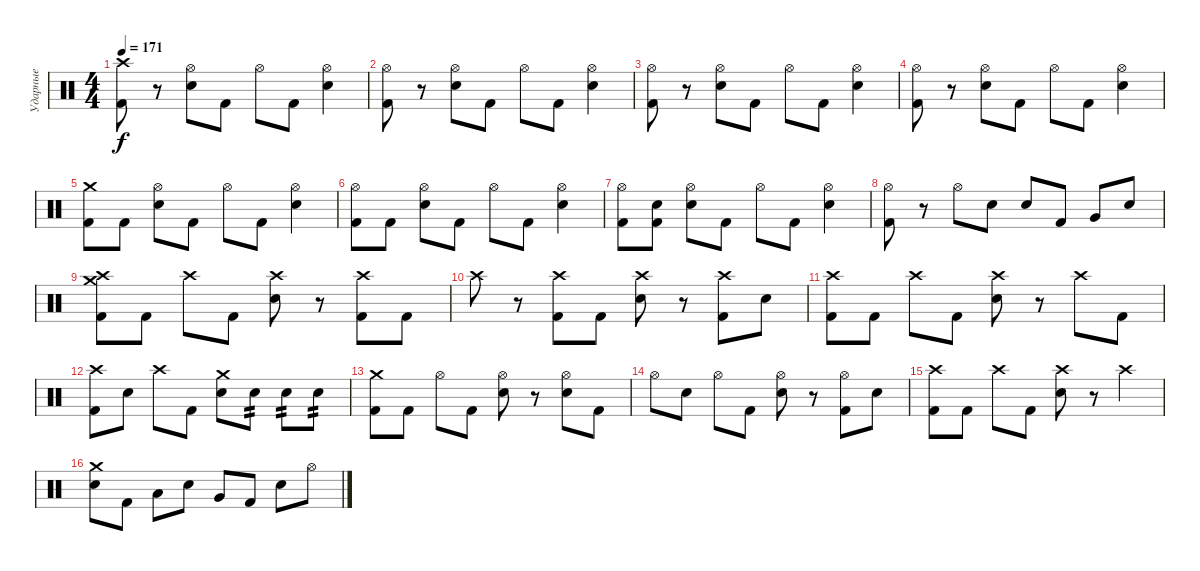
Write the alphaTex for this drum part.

\track ("Ударные" "Ударные") {instrument percussion}
\staff {score}
\articulation defaults
\ts (4 4)
\tempo 171
\clef neutral
\ks c
("Crash high (hit)" "Kick (hit) 2").8{dy f} r.8 ("Hi-Hat (open)" "Electric Snare (hit)").8 "Kick (hit) 2".8 "Hi-Hat (open)".8 "Kick (hit) 2".8 ("Hi-Hat (open)" "Electric Snare (hit)").4 |
("Hi-Hat (open)" "Kick (hit) 2").8 r.8 ("Hi-Hat (open)" "Electric Snare (hit)").8 "Kick (hit) 2".8 "Hi-Hat (open)".8 "Kick (hit) 2".8 ("Hi-Hat (open)" "Electric Snare (hit)").4 |
("Hi-Hat (open)" "Kick (hit) 2").8 r.8 ("Hi-Hat (open)" "Electric Snare (hit)").8 "Kick (hit) 2".8 "Hi-Hat (open)".8 "Kick (hit) 2".8 ("Hi-Hat (open)" "Electric Snare (hit)").4 |
("Hi-Hat (open)" "Kick (hit) 2").8 r.8 ("Hi-Hat (open)" "Electric Snare (hit)").8 "Kick (hit) 2".8 "Hi-Hat (open)".8 "Kick (hit) 2".8 ("Hi-Hat (open)" "Electric Snare (hit)").4 |
("Crash medium (hit)" "Kick (hit) 2").8 "Kick (hit) 2".8 ("Hi-Hat (open)" "Electric Snare (hit)").8 "Kick (hit) 2".8 "Hi-Hat (open)".8 "Kick (hit) 2".8 ("Hi-Hat (open)" "Electric Snare (hit)").4 |
("Hi-Hat (open)" "Kick (hit) 2").8 "Kick (hit) 2".8 ("Hi-Hat (open)" "Electric Snare (hit)").8 "Kick (hit) 2".8 "Hi-Hat (open)".8 "Kick (hit) 2".8 ("Hi-Hat (open)" "Electric Snare (hit)").4 |
("Hi-Hat (open)" "Kick (hit) 2").8 ("Snare (hit)" "Kick (hit) 2").8 ("Hi-Hat (open)" "Electric Snare (hit)").8 "Kick (hit) 2".8 "Hi-Hat (open)".8 "Kick (hit) 2".8 ("Hi-Hat (open)" "Electric Snare (hit)").4 |
("Hi-Hat (open)" "Kick (hit) 2").8 r.8 "Hi-Hat (open)".8 "Electric Snare (hit)".8 "Electric Snare (hit)".8 "Kick (hit) 2".8 "Very Low Tom (hit)".8 "Electric Snare (hit)".8 |
("Crash medium (hit)" "Crash high (hit)" "Kick (hit) 2").8 "Kick (hit) 2".8 "Crash high (hit)".8 "Kick (hit) 2".8 ("Crash high (hit)" "Electric Snare (hit)").8 r.8 ("Crash high (hit)" "Kick (hit) 2").8 "Kick (hit) 2".8 |
"Crash high (hit)".8 r.8 ("Crash high (hit)" "Kick (hit) 2").8 "Kick (hit) 2".8 ("Crash high (hit)" "Electric Snare (hit)").8 r.8 ("Crash high (hit)" "Kick (hit) 2").8 "Electric Snare (hit)".8 |
("Crash high (hit)" "Kick (hit) 2").8 "Kick (hit) 2".8 "Crash high (hit)".8 "Kick (hit) 2".8 ("Crash high (hit)" "Electric Snare (hit)").8 r.8 "Crash high (hit)".8 "Kick (hit) 2".8 |
("Crash high (hit)" "Kick (hit) 2").8 "Electric Snare (hit)".8 "Crash high (hit)".8 "Kick (hit) 2".8 ("Crash medium (hit)" "Electric Snare (hit)").8 "Electric Snare (hit)".8{tp 2} "Electric Snare (hit)".8{tp 2} "Electric Snare (hit)".8{tp 2} |
("Crash medium (hit)" "Kick (hit) 2").8 "Kick (hit) 2".8 "Hi-Hat (open)".8 "Kick (hit) 2".8 ("Hi-Hat (open)" "Electric Snare (hit)").8 r.8 ("Hi-Hat (open)" "Electric Snare (hit)").8 "Kick (hit) 2".8 |
"Hi-Hat (open)".8 "Electric Snare (hit)".8 "Hi-Hat (open)".8 "Kick (hit) 2".8 ("Hi-Hat (open)" "Electric Snare (hit)").8 r.8 ("Hi-Hat (open)" "Kick (hit) 2").8 "Electric Snare (hit)".8 |
("Crash high (hit)" "Kick (hit) 2").8 "Kick (hit) 2".8 "Crash high (hit)".8 "Kick (hit) 2".8 ("Crash high (hit)" "Electric Snare (hit)").8 r.8 "Crash high (hit)".4 |
("Crash medium (hit)" "Electric Snare (hit)").8 "Kick (hit) 2".8 "Low Tom (hit)".8 "Electric Snare (hit)".8 "Very Low Tom (hit)".8 "Kick (hit) 2".8 "Electric Snare (hit)".8 "Hi-Hat (open)".8
